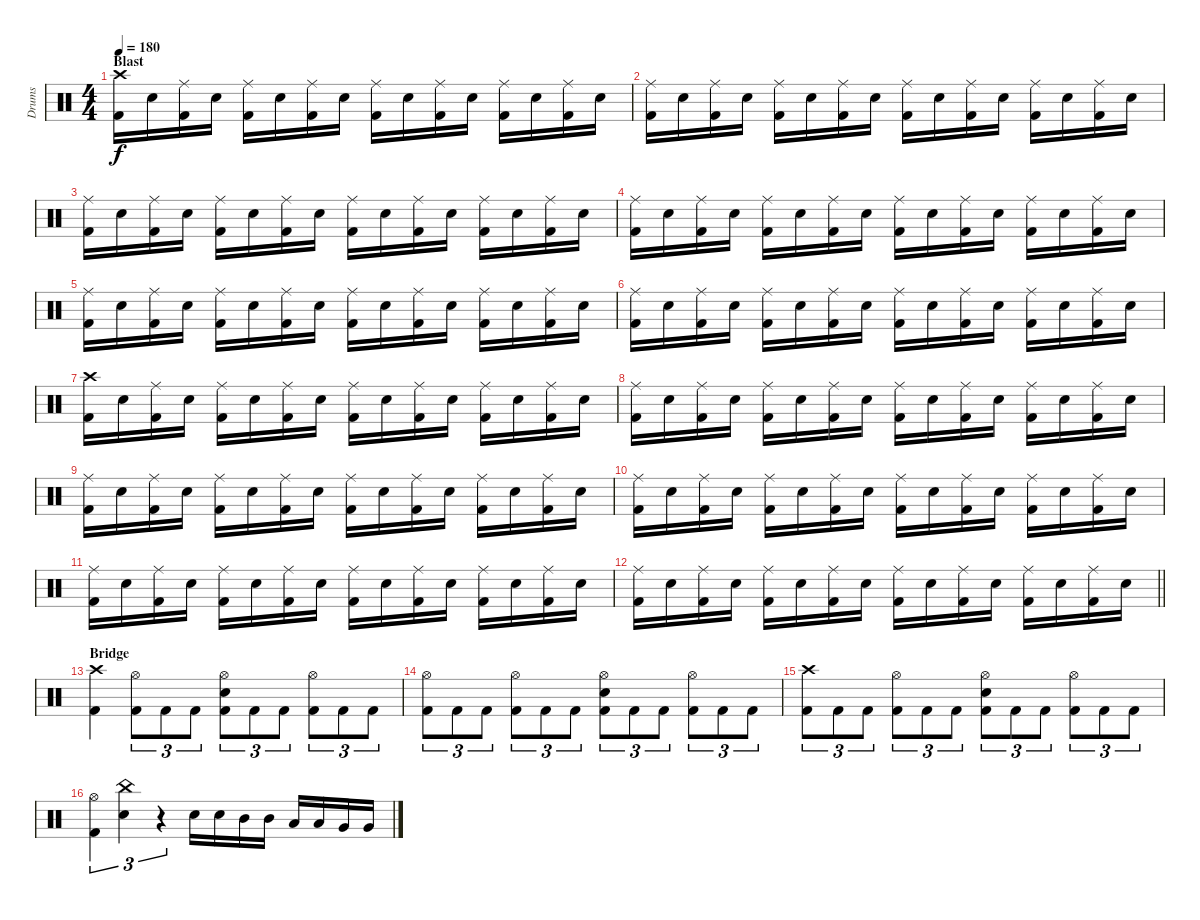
\track ("Drums" "Drums") {instrument percussion}
\staff {score}
\articulation defaults
\ts (4 4)
\section ("" "Blast")
\tempo 180
\clef neutral
\ks c
("Crash high (hit)" "Kick (hit) 2").16{dy f} "Electric Snare (hit)".16 ("Ride (middle)" "Kick (hit) 2").16 "Electric Snare (hit)".16 ("Ride (middle)" "Kick (hit) 2").16 "Electric Snare (hit)".16 ("Ride (middle)" "Kick (hit) 2").16 "Electric Snare (hit)".16 ("Ride (middle)" "Kick (hit) 2").16 "Electric Snare (hit)".16 ("Ride (middle)" "Kick (hit) 2").16 "Electric Snare (hit)".16 ("Ride (middle)" "Kick (hit) 2").16 "Electric Snare (hit)".16 ("Ride (middle)" "Kick (hit) 2").16 "Electric Snare (hit)".16 |
("Ride (middle)" "Kick (hit) 2").16 "Electric Snare (hit)".16 ("Ride (middle)" "Kick (hit) 2").16 "Electric Snare (hit)".16 ("Ride (middle)" "Kick (hit) 2").16 "Electric Snare (hit)".16 ("Ride (middle)" "Kick (hit) 2").16 "Electric Snare (hit)".16 ("Ride (middle)" "Kick (hit) 2").16 "Electric Snare (hit)".16 ("Ride (middle)" "Kick (hit) 2").16 "Electric Snare (hit)".16 ("Ride (middle)" "Kick (hit) 2").16 "Electric Snare (hit)".16 ("Ride (middle)" "Kick (hit) 2").16 "Electric Snare (hit)".16 |
("Ride (middle)" "Kick (hit) 2").16 "Electric Snare (hit)".16 ("Ride (middle)" "Kick (hit) 2").16 "Electric Snare (hit)".16 ("Ride (middle)" "Kick (hit) 2").16 "Electric Snare (hit)".16 ("Ride (middle)" "Kick (hit) 2").16 "Electric Snare (hit)".16 ("Ride (middle)" "Kick (hit) 2").16 "Electric Snare (hit)".16 ("Ride (middle)" "Kick (hit) 2").16 "Electric Snare (hit)".16 ("Ride (middle)" "Kick (hit) 2").16 "Electric Snare (hit)".16 ("Ride (middle)" "Kick (hit) 2").16 "Electric Snare (hit)".16 |
("Ride (middle)" "Kick (hit) 2").16 "Electric Snare (hit)".16 ("Ride (middle)" "Kick (hit) 2").16 "Electric Snare (hit)".16 ("Ride (middle)" "Kick (hit) 2").16 "Electric Snare (hit)".16 ("Ride (middle)" "Kick (hit) 2").16 "Electric Snare (hit)".16 ("Ride (middle)" "Kick (hit) 2").16 "Electric Snare (hit)".16 ("Ride (middle)" "Kick (hit) 2").16 "Electric Snare (hit)".16 ("Ride (middle)" "Kick (hit) 2").16 "Electric Snare (hit)".16 ("Ride (middle)" "Kick (hit) 2").16 "Electric Snare (hit)".16 |
("Ride (middle)" "Kick (hit) 2").16 "Electric Snare (hit)".16 ("Ride (middle)" "Kick (hit) 2").16 "Electric Snare (hit)".16 ("Ride (middle)" "Kick (hit) 2").16 "Electric Snare (hit)".16 ("Ride (middle)" "Kick (hit) 2").16 "Electric Snare (hit)".16 ("Ride (middle)" "Kick (hit) 2").16 "Electric Snare (hit)".16 ("Ride (middle)" "Kick (hit) 2").16 "Electric Snare (hit)".16 ("Ride (middle)" "Kick (hit) 2").16 "Electric Snare (hit)".16 ("Ride (middle)" "Kick (hit) 2").16 "Electric Snare (hit)".16 |
("Ride (middle)" "Kick (hit) 2").16 "Electric Snare (hit)".16 ("Ride (middle)" "Kick (hit) 2").16 "Electric Snare (hit)".16 ("Ride (middle)" "Kick (hit) 2").16 "Electric Snare (hit)".16 ("Ride (middle)" "Kick (hit) 2").16 "Electric Snare (hit)".16 ("Ride (middle)" "Kick (hit) 2").16 "Electric Snare (hit)".16 ("Ride (middle)" "Kick (hit) 2").16 "Electric Snare (hit)".16 ("Ride (middle)" "Kick (hit) 2").16 "Electric Snare (hit)".16 ("Ride (middle)" "Kick (hit) 2").16 "Electric Snare (hit)".16 |
("Crash high (hit)" "Kick (hit) 2").16 "Electric Snare (hit)".16 ("Ride (middle)" "Kick (hit) 2").16 "Electric Snare (hit)".16 ("Ride (middle)" "Kick (hit) 2").16 "Electric Snare (hit)".16 ("Ride (middle)" "Kick (hit) 2").16 "Electric Snare (hit)".16 ("Ride (middle)" "Kick (hit) 2").16 "Electric Snare (hit)".16 ("Ride (middle)" "Kick (hit) 2").16 "Electric Snare (hit)".16 ("Ride (middle)" "Kick (hit) 2").16 "Electric Snare (hit)".16 ("Ride (middle)" "Kick (hit) 2").16 "Electric Snare (hit)".16 |
("Ride (middle)" "Kick (hit) 2").16 "Electric Snare (hit)".16 ("Ride (middle)" "Kick (hit) 2").16 "Electric Snare (hit)".16 ("Ride (middle)" "Kick (hit) 2").16 "Electric Snare (hit)".16 ("Ride (middle)" "Kick (hit) 2").16 "Electric Snare (hit)".16 ("Ride (middle)" "Kick (hit) 2").16 "Electric Snare (hit)".16 ("Ride (middle)" "Kick (hit) 2").16 "Electric Snare (hit)".16 ("Ride (middle)" "Kick (hit) 2").16 "Electric Snare (hit)".16 ("Ride (middle)" "Kick (hit) 2").16 "Electric Snare (hit)".16 |
("Ride (middle)" "Kick (hit) 2").16 "Electric Snare (hit)".16 ("Ride (middle)" "Kick (hit) 2").16 "Electric Snare (hit)".16 ("Ride (middle)" "Kick (hit) 2").16 "Electric Snare (hit)".16 ("Ride (middle)" "Kick (hit) 2").16 "Electric Snare (hit)".16 ("Ride (middle)" "Kick (hit) 2").16 "Electric Snare (hit)".16 ("Ride (middle)" "Kick (hit) 2").16 "Electric Snare (hit)".16 ("Ride (middle)" "Kick (hit) 2").16 "Electric Snare (hit)".16 ("Ride (middle)" "Kick (hit) 2").16 "Electric Snare (hit)".16 |
("Ride (middle)" "Kick (hit) 2").16 "Electric Snare (hit)".16 ("Ride (middle)" "Kick (hit) 2").16 "Electric Snare (hit)".16 ("Ride (middle)" "Kick (hit) 2").16 "Electric Snare (hit)".16 ("Ride (middle)" "Kick (hit) 2").16 "Electric Snare (hit)".16 ("Ride (middle)" "Kick (hit) 2").16 "Electric Snare (hit)".16 ("Ride (middle)" "Kick (hit) 2").16 "Electric Snare (hit)".16 ("Ride (middle)" "Kick (hit) 2").16 "Electric Snare (hit)".16 ("Ride (middle)" "Kick (hit) 2").16 "Electric Snare (hit)".16 |
("Ride (middle)" "Kick (hit) 2").16 "Electric Snare (hit)".16 ("Ride (middle)" "Kick (hit) 2").16 "Electric Snare (hit)".16 ("Ride (middle)" "Kick (hit) 2").16 "Electric Snare (hit)".16 ("Ride (middle)" "Kick (hit) 2").16 "Electric Snare (hit)".16 ("Ride (middle)" "Kick (hit) 2").16 "Electric Snare (hit)".16 ("Ride (middle)" "Kick (hit) 2").16 "Electric Snare (hit)".16 ("Ride (middle)" "Kick (hit) 2").16 "Electric Snare (hit)".16 ("Ride (middle)" "Kick (hit) 2").16 "Electric Snare (hit)".16 |
\barLineRight lightlight
("Ride (middle)" "Kick (hit) 2").16 "Electric Snare (hit)".16 ("Ride (middle)" "Kick (hit) 2").16 "Electric Snare (hit)".16 ("Ride (middle)" "Kick (hit) 2").16 "Electric Snare (hit)".16 ("Ride (middle)" "Kick (hit) 2").16 "Electric Snare (hit)".16 ("Ride (middle)" "Kick (hit) 2").16 "Electric Snare (hit)".16 ("Ride (middle)" "Kick (hit) 2").16 "Electric Snare (hit)".16 ("Ride (middle)" "Kick (hit) 2").16 "Electric Snare (hit)".16 ("Ride (middle)" "Kick (hit) 2").16 "Electric Snare (hit)".16 |
\section ("" "Bridge")
("Crash high (hit)" "Kick (hit) 2").4 ("Hi-Hat (open)" "Kick (hit) 2").8{tu (3 2)} "Kick (hit) 2".8{tu (3 2)} "Kick (hit) 2".8{tu (3 2)} ("Hi-Hat (open)" "Electric Snare (hit)" "Kick (hit) 2").8{tu (3 2)} "Kick (hit) 2".8{tu (3 2)} "Kick (hit) 2".8{tu (3 2)} ("Hi-Hat (open)" "Kick (hit) 2").8{tu (3 2)} "Kick (hit) 2".8{tu (3 2)} "Kick (hit) 2".8{tu (3 2)} |
("Hi-Hat (open)" "Kick (hit) 2").8{tu (3 2)} "Kick (hit) 2".8{tu (3 2)} "Kick (hit) 2".8{tu (3 2)} ("Hi-Hat (open)" "Kick (hit) 2").8{tu (3 2)} "Kick (hit) 2".8{tu (3 2)} "Kick (hit) 2".8{tu (3 2)} ("Hi-Hat (open)" "Electric Snare (hit)" "Kick (hit) 2").8{tu (3 2)} "Kick (hit) 2".8{tu (3 2)} "Kick (hit) 2".8{tu (3 2)} ("Hi-Hat (open)" "Kick (hit) 2").8{tu (3 2)} "Kick (hit) 2".8{tu (3 2)} "Kick (hit) 2".8{tu (3 2)} |
("Crash high (hit)" "Kick (hit) 2").8{tu (3 2)} "Kick (hit) 2".8{tu (3 2)} "Kick (hit) 2".8{tu (3 2)} ("Hi-Hat (open)" "Kick (hit) 2").8{tu (3 2)} "Kick (hit) 2".8{tu (3 2)} "Kick (hit) 2".8{tu (3 2)} ("Hi-Hat (open)" "Electric Snare (hit)" "Kick (hit) 2").8{tu (3 2)} "Kick (hit) 2".8{tu (3 2)} "Kick (hit) 2".8{tu (3 2)} ("Hi-Hat (open)" "Kick (hit) 2").8{tu (3 2)} "Kick (hit) 2".8{tu (3 2)} "Kick (hit) 2".8{tu (3 2)} |
("Hi-Hat (open)" "Kick (hit) 2").4{tu (3 2)} ("China (hit)" "Electric Snare (hit)").4{tu (3 2)} r.4{tu (3 2) volume 0} "Electric Snare (hit)".16{volume 16} "Electric Snare (hit)".16 "Mid Tom (hit)".16 "Mid Tom (hit)".16 "Low Tom (hit)".16 "Low Tom (hit)".16 "Very Low Tom (hit)".16 "Very Low Tom (hit)".16
